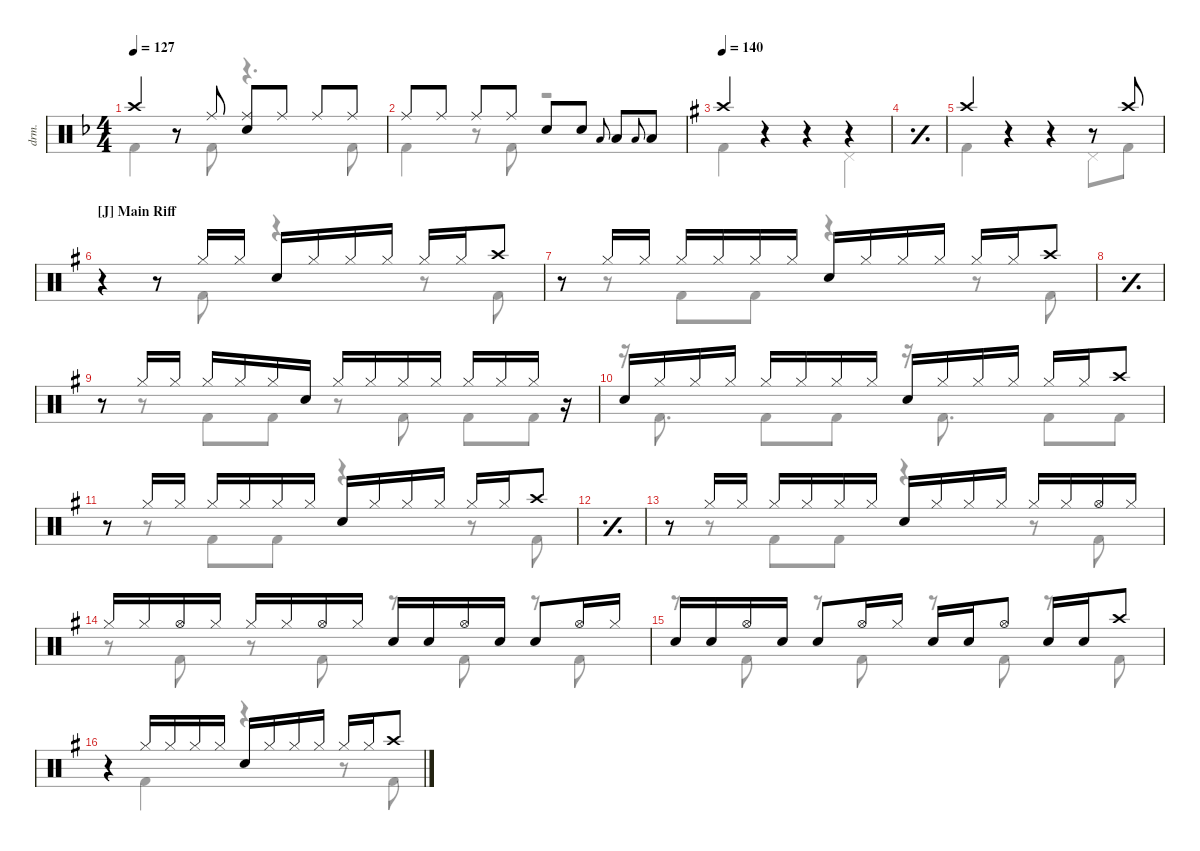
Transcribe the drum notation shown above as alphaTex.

\defaultSystemsLayout 4
\hideDynamics
\bracketExtendMode nobrackets
\track ("Drums" "drm.") {instrument percussion}
\staff {score}
\articulation defaults
\voice
\ts (4 4)
\tempo 127
\clef neutral
\ks f "Crash high (hit)"{acc forcenatural}.4{dy mf}
r.8 "Ride (middle)"{acc forcenatural}.8 ("Ride (middle)"{acc forcenatural} "Snare (hit) 2"{acc forcenatural}).8 "Ride (middle)"{acc forcenatural}.8 "Ride (middle)"{acc forcenatural}.8 "Ride (middle)"{acc forcenatural}.8 |
"Ride (middle)"{acc forcenatural}.8 "Ride (middle)"{acc forcenatural}.8 "Ride (middle)"{acc forcenatural}.8 "Ride (middle)"{acc forcenatural}.8 "Snare (hit) 2"{acc forcenatural}.8 "Snare (hit) 2"{acc forcenatural}.8 "Low Tom (hit)"{acc forcenatural}.8{gr onbeat} "Low Tom (hit)"{acc forcenatural}.8 "Low Tom (hit)"{acc forcenatural}.8{gr onbeat} "Low Tom (hit)"{acc forcenatural}.8 |
\tempo 140
\ks g "Crash high (hit)"{acc forcenatural}.4
r.4 r.4 r.4 |
\simile simple
|
\simile none "Crash high (hit)"{acc forcenatural}.4
r.4 r.4 r.8 "Crash high (hit)"{acc forcenatural}.8 |
\section ("J" "Main Riff")
r.4 r.8 "Hi-Hat (closed)"{acc forcenatural}.16 "Hi-Hat (closed)"{acc forcenatural}.16 "Snare (hit) 2"{acc forcenatural}.16 "Hi-Hat (closed)"{acc forcenatural}.16 "Hi-Hat (closed)"{acc forcenatural}.16 "Hi-Hat (closed)"{acc forcenatural}.16 "Hi-Hat (closed)"{acc forcenatural}.16 "Hi-Hat (closed)"{acc forcenatural}.16 "Crash high (hit)"{acc forcenatural}.8 |
r.8 "Hi-Hat (closed)"{acc forcenatural}.16 "Hi-Hat (closed)"{acc forcenatural}.16 "Hi-Hat (closed)"{acc forcenatural}.16 "Hi-Hat (closed)"{acc forcenatural}.16 "Hi-Hat (closed)"{acc forcenatural}.16 "Hi-Hat (closed)"{acc forcenatural}.16 "Snare (hit) 2"{acc forcenatural}.16 "Hi-Hat (closed)"{acc forcenatural}.16 "Hi-Hat (closed)"{acc forcenatural}.16 "Hi-Hat (closed)"{acc forcenatural}.16 "Hi-Hat (closed)"{acc forcenatural}.16 "Hi-Hat (closed)"{acc forcenatural}.16 "Crash high (hit)"{acc forcenatural}.8 |
\simile simple
|
\simile none
r.8 "Hi-Hat (closed)"{acc forcenatural}.16 "Hi-Hat (closed)"{acc forcenatural}.16 "Hi-Hat (closed)"{acc forcenatural}.16 "Hi-Hat (closed)"{acc forcenatural}.16 "Hi-Hat (closed)"{acc forcenatural}.16 "Snare (hit) 2"{acc forcenatural}.16 "Hi-Hat (closed)"{acc forcenatural}.16 "Hi-Hat (closed)"{acc forcenatural}.16 "Hi-Hat (closed)"{acc forcenatural}.16 "Hi-Hat (closed)"{acc forcenatural}.16 "Hi-Hat (closed)"{acc forcenatural}.16 "Hi-Hat (closed)"{acc forcenatural}.16 "Hi-Hat (closed)"{acc forcenatural}.16 r.16 |
"Snare (hit) 2"{acc forcenatural}.16 "Hi-Hat (closed)"{acc forcenatural}.16 "Hi-Hat (closed)"{acc forcenatural}.16 "Hi-Hat (closed)"{acc forcenatural}.16 "Hi-Hat (closed)"{acc forcenatural}.16 "Hi-Hat (closed)"{acc forcenatural}.16 "Hi-Hat (closed)"{acc forcenatural}.16 "Hi-Hat (closed)"{acc forcenatural}.16 "Snare (hit) 2"{acc forcenatural}.16 "Hi-Hat (closed)"{acc forcenatural}.16 "Hi-Hat (closed)"{acc forcenatural}.16 "Hi-Hat (closed)"{acc forcenatural}.16 "Hi-Hat (closed)"{acc forcenatural}.16 "Hi-Hat (closed)"{acc forcenatural}.16 "Crash high (hit)"{acc forcenatural}.8 |
r.8 "Hi-Hat (closed)"{acc forcenatural}.16 "Hi-Hat (closed)"{acc forcenatural}.16 "Hi-Hat (closed)"{acc forcenatural}.16 "Hi-Hat (closed)"{acc forcenatural}.16 "Hi-Hat (closed)"{acc forcenatural}.16 "Hi-Hat (closed)"{acc forcenatural}.16 "Snare (hit) 2"{acc forcenatural}.16 "Hi-Hat (closed)"{acc forcenatural}.16 "Hi-Hat (closed)"{acc forcenatural}.16 "Hi-Hat (closed)"{acc forcenatural}.16 "Hi-Hat (closed)"{acc forcenatural}.16 "Hi-Hat (closed)"{acc forcenatural}.16 "Crash high (hit)"{acc forcenatural}.8 |
\simile simple
|
\simile none
r.8 "Hi-Hat (closed)"{acc forcenatural}.16 "Hi-Hat (closed)"{acc forcenatural}.16 "Hi-Hat (closed)"{acc forcenatural}.16 "Hi-Hat (closed)"{acc forcenatural}.16 "Hi-Hat (closed)"{acc forcenatural}.16 "Hi-Hat (closed)"{acc forcenatural}.16 "Snare (hit) 2"{acc forcenatural}.16 "Hi-Hat (closed)"{acc forcenatural}.16 "Hi-Hat (closed)"{acc forcenatural}.16 "Hi-Hat (closed)"{acc forcenatural}.16 "Hi-Hat (closed)"{acc forcenatural}.16 "Hi-Hat (closed)"{acc forcenatural}.16 "Hi-Hat (open)"{acc forcenatural}.16 "Hi-Hat (closed)"{acc forcenatural}.16 |
"Hi-Hat (closed)"{acc forcenatural}.16 "Hi-Hat (closed)"{acc forcenatural}.16 "Hi-Hat (open)"{acc forcenatural}.16 "Hi-Hat (closed)"{acc forcenatural}.16 "Hi-Hat (closed)"{acc forcenatural}.16 "Hi-Hat (closed)"{acc forcenatural}.16 "Hi-Hat (open)"{acc forcenatural}.16 "Hi-Hat (closed)"{acc forcenatural}.16 "Snare (hit) 2"{acc forcenatural}.16 "Snare (hit) 2"{acc forcenatural}.16 "Hi-Hat (open)"{acc forcenatural}.16 "Snare (hit) 2"{acc forcenatural}.16 "Snare (hit) 2"{acc forcenatural}.8 "Hi-Hat (open)"{acc forcenatural}.16 "Hi-Hat (closed)"{acc forcenatural}.16 |
"Snare (hit) 2"{acc forcenatural}.16 "Snare (hit) 2"{acc forcenatural}.16 "Hi-Hat (open)"{acc forcenatural}.16 "Snare (hit) 2"{acc forcenatural}.16 "Snare (hit) 2"{acc forcenatural}.8 "Hi-Hat (open)"{acc forcenatural}.16 "Hi-Hat (closed)"{acc forcenatural}.16 "Snare (hit) 2"{acc forcenatural}.16 "Snare (hit) 2"{acc forcenatural}.16 "Hi-Hat (open)"{acc forcenatural}.8 "Snare (hit) 2"{acc forcenatural}.16 "Snare (hit) 2"{acc forcenatural}.16 "Crash high (hit)"{acc forcenatural}.8 |
r.4 "Hi-Hat (closed)"{acc forcenatural}.16 "Hi-Hat (closed)"{acc forcenatural}.16 "Hi-Hat (closed)"{acc forcenatural}.16 "Hi-Hat (closed)"{acc forcenatural}.16 "Snare (hit) 2"{acc forcenatural}.16 "Hi-Hat (closed)"{acc forcenatural}.16 "Hi-Hat (closed)"{acc forcenatural}.16 "Hi-Hat (closed)"{acc forcenatural}.16 "Hi-Hat (closed)"{acc forcenatural}.16 "Hi-Hat (closed)"{acc forcenatural}.16 "Crash high (hit)"{acc forcenatural}.8
\voice
\clef neutral
\ottava regular
\simile none
\ks f "Kick (hit) 2"{acc forcenatural}.4{dy mf}
r.8 "Kick (hit) 2"{acc forcenatural}.8 r.4{d} "Kick (hit) 2"{acc forcenatural}.8 |
"Kick (hit) 2"{acc forcenatural}.4 r.8 "Kick (hit) 2"{acc forcenatural}.8 r.2 |
\ks g "Kick (hit) 2"{acc forcenatural}.4
r.4 r.4 "Pedal Hi-Hat (hit)"{acc forcenatural}.4 |
\simile simple
|
\simile none "Kick (hit) 2"{acc forcenatural}.4
r.4 r.4 "Pedal Hi-Hat (hit)"{acc forcenatural}.8 "Kick (hit) 2"{acc forcenatural}.8 |
r.4 r.8 "Kick (hit) 2"{acc forcenatural}.8 r.4 r.8 "Kick (hit) 2"{acc forcenatural}.8 |
r.8 r.8 "Kick (hit) 2"{acc forcenatural}.8 "Kick (hit) 2"{acc forcenatural}.8 r.4 r.8 "Kick (hit) 2"{acc forcenatural}.8 |
\simile simple
|
\simile none
r.8 r.8 "Kick (hit) 2"{acc forcenatural}.8 "Kick (hit) 2"{acc forcenatural}.8 r.8 "Kick (hit) 2"{acc forcenatural}.8 "Kick (hit) 2"{acc forcenatural}.8 "Kick (hit) 2"{acc forcenatural}.8 |
r.16 "Kick (hit) 2"{acc forcenatural}.8{d} "Kick (hit) 2"{acc forcenatural}.8 "Kick (hit) 2"{acc forcenatural}.8 r.16 "Kick (hit) 2"{acc forcenatural}.8{d} "Kick (hit) 2"{acc forcenatural}.8 "Kick (hit) 2"{acc forcenatural}.8 |
r.8 r.8 "Kick (hit) 2"{acc forcenatural}.8 "Kick (hit) 2"{acc forcenatural}.8 r.4 r.8 "Kick (hit) 2"{acc forcenatural}.8 |
\simile simple
|
\simile none
r.8 r.8 "Kick (hit) 2"{acc forcenatural}.8 "Kick (hit) 2"{acc forcenatural}.8 r.4 r.8 "Kick (hit) 2"{acc forcenatural}.8 |
r.8 "Kick (hit) 2"{acc forcenatural}.8 r.8 "Kick (hit) 2"{acc forcenatural}.8 r.8 "Kick (hit) 2"{acc forcenatural}.8 r.8 "Kick (hit) 2"{acc forcenatural}.8 |
r.8 "Kick (hit) 2"{acc forcenatural}.8 r.8 "Kick (hit) 2"{acc forcenatural}.8 r.8 "Kick (hit) 2"{acc forcenatural}.8 r.8 "Kick (hit) 2"{acc forcenatural}.8 |
r.4 "Kick (hit) 2"{acc forcenatural}.4 r.4 r.8 "Kick (hit) 2"{acc forcenatural}.8
